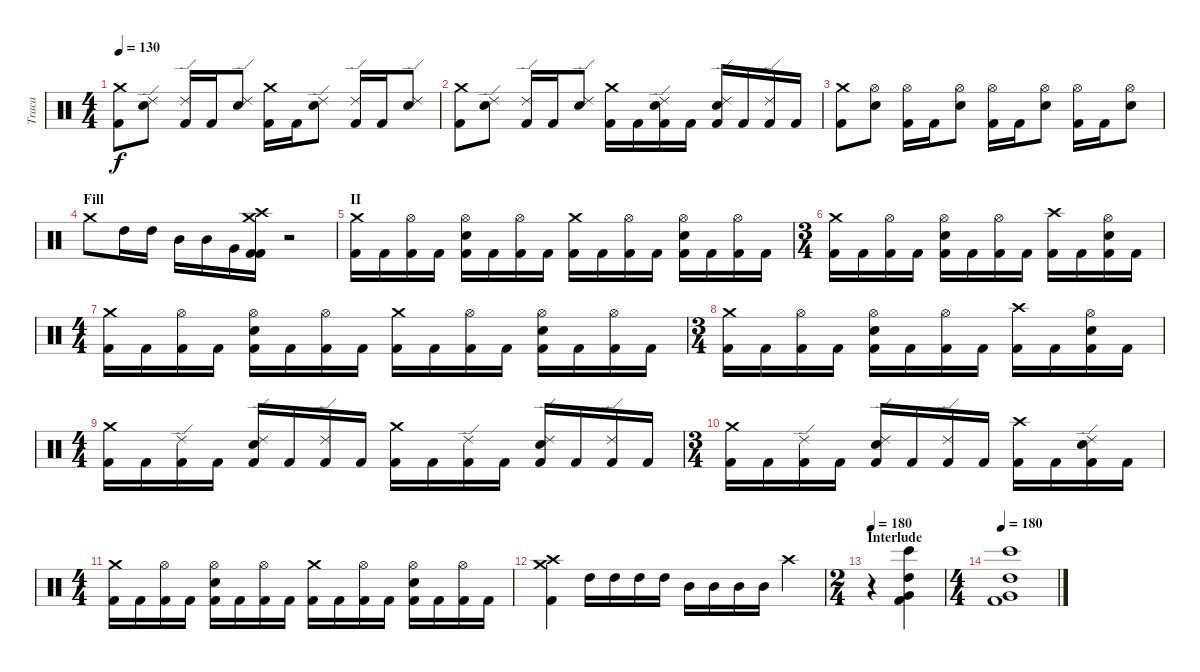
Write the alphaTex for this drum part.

\track ("Traca" "Traca") {instrument percussion}
\staff {score}
\articulation defaults
\ts (4 4)
\tempo 130
\clef neutral
\ks c
("Crash medium (hit)" "Kick (hit) 2").8{dy f} ("Ride (edge) 2" "Snare (hit) 2").8 ("Ride (edge) 2" "Kick (hit) 2").16 "Kick (hit) 2".16 ("Ride (edge) 2" "Snare (hit) 2").8 ("Crash medium (hit)" "Kick (hit) 2").16 "Kick (hit) 2".16 ("Ride (edge) 2" "Snare (hit) 2").8 ("Ride (edge) 2" "Kick (hit) 2").16 "Kick (hit) 2".16 ("Ride (edge) 2" "Snare (hit) 2").8 |
("Crash medium (hit)" "Kick (hit) 2").8 ("Ride (edge) 2" "Snare (hit) 2").8 ("Ride (edge) 2" "Kick (hit) 2").16 "Kick (hit) 2".16 ("Ride (edge) 2" "Snare (hit) 2").8 ("Crash medium (hit)" "Kick (hit) 2").16 "Kick (hit) 2".16 ("Ride (edge) 2" "Snare (hit) 2" "Kick (hit) 2").16 "Kick (hit) 2".16 ("Ride (edge) 2" "Snare (hit) 2" "Kick (hit) 2").16 "Kick (hit) 2".16 ("Ride (edge) 2" "Kick (hit) 2").16 "Kick (hit) 2".16 |
("Crash medium (hit)" "Kick (hit) 2").8 ("Hi-Hat (open)" "Snare (hit) 2").8 ("Hi-Hat (open)" "Kick (hit) 2").16 "Kick (hit) 2".16 ("Hi-Hat (open)" "Snare (hit) 2").8 ("Hi-Hat (open)" "Kick (hit) 2").16 "Kick (hit) 2".16 ("Hi-Hat (open)" "Snare (hit) 2").8 ("Hi-Hat (open)" "Kick (hit) 2").16 "Kick (hit) 2".16 ("Hi-Hat (open)" "Snare (hit) 2").8 |
\section ("" "Fill")
"Crash medium (hit)".8 "High Tom (hit)".16 "High Tom (hit)".16 "Mid Tom (hit)".16 "Mid Tom (hit)".16 "Very Low Tom (hit)".16 ("Crash medium (hit)" "Crash high (hit)" "Kick (hit) 2" "Kick (hit) 2").16 r.2 |
\section ("" "II")
("Crash medium (hit)" "Kick (hit) 2").16 "Kick (hit) 2".16 ("Hi-Hat (open)" "Kick (hit) 2").16 "Kick (hit) 2".16 ("Hi-Hat (open)" "Snare (hit) 2" "Kick (hit) 2").16 "Kick (hit) 2".16 ("Hi-Hat (open)" "Kick (hit) 2").16 "Kick (hit) 2".16 ("Crash medium (hit)" "Kick (hit) 2").16 "Kick (hit) 2".16 ("Hi-Hat (open)" "Kick (hit) 2").16 "Kick (hit) 2".16 ("Hi-Hat (open)" "Snare (hit) 2" "Kick (hit) 2").16 "Kick (hit) 2".16 ("Hi-Hat (open)" "Kick (hit) 2").16 "Kick (hit) 2".16 |
\ts (3 4)
("Crash medium (hit)" "Kick (hit) 2").16 "Kick (hit) 2".16 ("Hi-Hat (open)" "Kick (hit) 2").16 "Kick (hit) 2".16 ("Hi-Hat (open)" "Snare (hit) 2" "Kick (hit) 2").16 "Kick (hit) 2".16 ("Hi-Hat (open)" "Kick (hit) 2").16 "Kick (hit) 2".16 ("Crash high (hit)" "Kick (hit) 2").16 "Kick (hit) 2".16 ("Hi-Hat (open)" "Snare (hit) 2" "Kick (hit) 2").16 "Kick (hit) 2".16 |
\ts (4 4)
("Crash medium (hit)" "Kick (hit) 2").16 "Kick (hit) 2".16 ("Hi-Hat (open)" "Kick (hit) 2").16 "Kick (hit) 2".16 ("Hi-Hat (open)" "Snare (hit) 2" "Kick (hit) 2").16 "Kick (hit) 2".16 ("Hi-Hat (open)" "Kick (hit) 2").16 "Kick (hit) 2".16 ("Crash medium (hit)" "Kick (hit) 2").16 "Kick (hit) 2".16 ("Hi-Hat (open)" "Kick (hit) 2").16 "Kick (hit) 2".16 ("Hi-Hat (open)" "Snare (hit) 2" "Kick (hit) 2").16 "Kick (hit) 2".16 ("Hi-Hat (open)" "Kick (hit) 2").16 "Kick (hit) 2".16 |
\ts (3 4)
("Crash medium (hit)" "Kick (hit) 2").16 "Kick (hit) 2".16 ("Hi-Hat (open)" "Kick (hit) 2").16 "Kick (hit) 2".16 ("Hi-Hat (open)" "Snare (hit) 2" "Kick (hit) 2").16 "Kick (hit) 2".16 ("Hi-Hat (open)" "Kick (hit) 2").16 "Kick (hit) 2".16 ("Crash high (hit)" "Kick (hit) 2").16 "Kick (hit) 2".16 ("Hi-Hat (open)" "Snare (hit) 2" "Kick (hit) 2").16 "Kick (hit) 2".16 |
\ts (4 4)
("Crash medium (hit)" "Kick (hit) 2").16 "Kick (hit) 2".16 ("Ride (edge) 2" "Kick (hit) 2").16 "Kick (hit) 2".16 ("Ride (edge) 2" "Snare (hit) 2" "Kick (hit) 2").16 "Kick (hit) 2".16 ("Ride (edge) 2" "Kick (hit) 2").16 "Kick (hit) 2".16 ("Crash medium (hit)" "Kick (hit) 2").16 "Kick (hit) 2".16 ("Ride (edge) 2" "Kick (hit) 2").16 "Kick (hit) 2".16 ("Ride (edge) 2" "Snare (hit) 2" "Kick (hit) 2").16 "Kick (hit) 2".16 ("Ride (edge) 2" "Kick (hit) 2").16 "Kick (hit) 2".16 |
\ts (3 4)
("Crash medium (hit)" "Kick (hit) 2").16 "Kick (hit) 2".16 ("Ride (edge) 2" "Kick (hit) 2").16 "Kick (hit) 2".16 ("Ride (edge) 2" "Snare (hit) 2" "Kick (hit) 2").16 "Kick (hit) 2".16 ("Ride (edge) 2" "Kick (hit) 2").16 "Kick (hit) 2".16 ("Crash high (hit)" "Kick (hit) 2").16 "Kick (hit) 2".16 ("Ride (edge) 2" "Snare (hit) 2" "Kick (hit) 2").16 "Kick (hit) 2".16 |
\ts (4 4)
("Crash medium (hit)" "Kick (hit) 2").16 "Kick (hit) 2".16 ("Hi-Hat (open)" "Kick (hit) 2").16 "Kick (hit) 2".16 ("Hi-Hat (open)" "Snare (hit) 2" "Kick (hit) 2").16 "Kick (hit) 2".16 ("Hi-Hat (open)" "Kick (hit) 2").16 "Kick (hit) 2".16 ("Crash medium (hit)" "Kick (hit) 2").16 "Kick (hit) 2".16 ("Hi-Hat (open)" "Kick (hit) 2").16 "Kick (hit) 2".16 ("Hi-Hat (open)" "Snare (hit) 2" "Kick (hit) 2").16 "Kick (hit) 2".16 ("Hi-Hat (open)" "Kick (hit) 2").16 "Kick (hit) 2".16 |
("Crash high (hit)" "Crash medium (hit)" "Kick (hit) 2").4 "High Tom (hit)".16 "High Tom (hit)".16 "High Tom (hit)".16 "High Tom (hit)".16 "Mid Tom (hit)".16 "Mid Tom (hit)".16 "Mid Tom (hit)".16 "Mid Tom (hit)".16 "Crash high (hit)".4 |
\ts (2 4)
\section ("" "Interlude")
\tempo 180
r.4 ("Bongo High (hit)" "High Tom (hit)" "Very Low Tom (hit)" "Kick (hit) 2").4 |
\ts (4 4)
\tempo 180
("Bongo High (hit)" "High Tom (hit)" "Very Low Tom (hit)" "Kick (hit) 2").1
